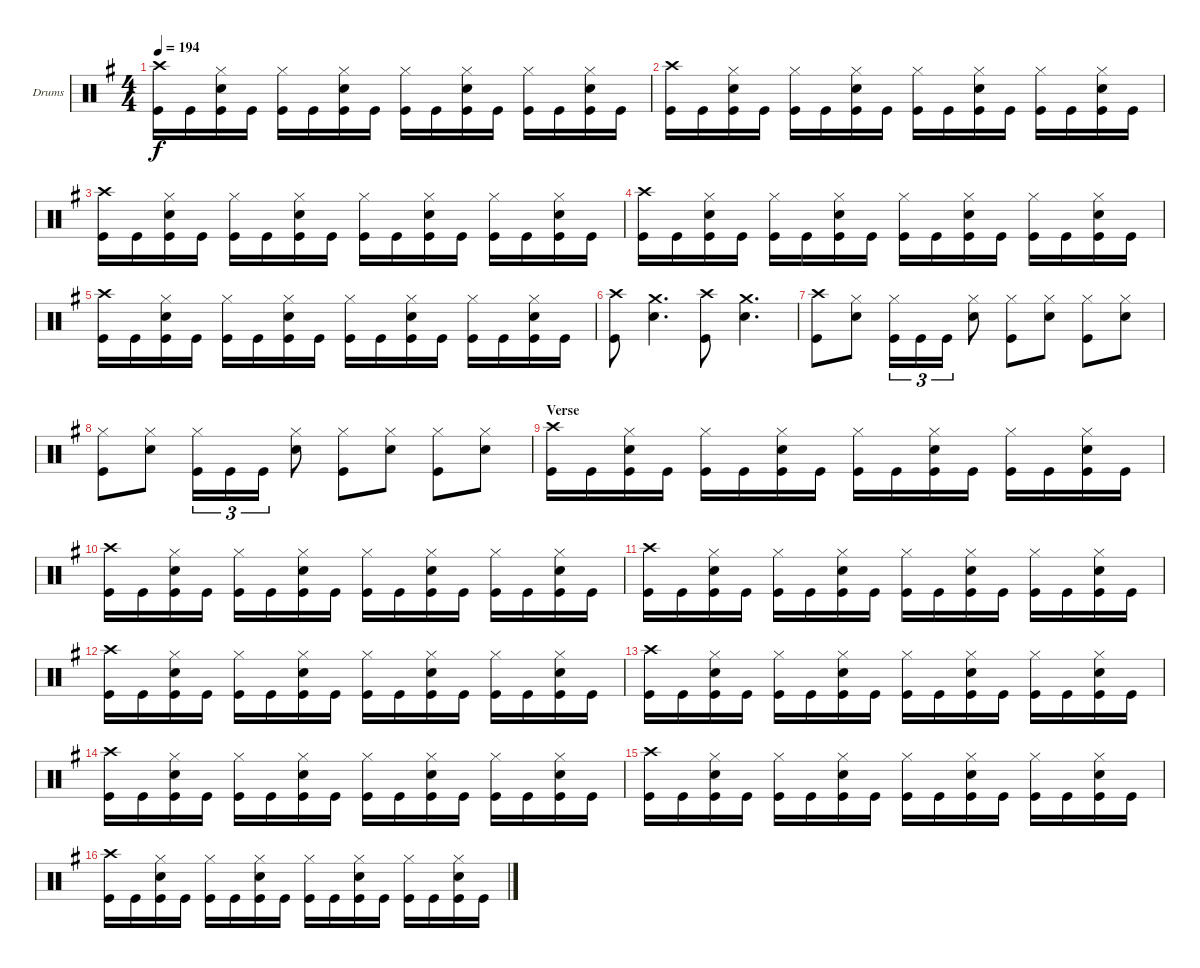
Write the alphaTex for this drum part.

\bracketExtendMode groupsimilarinstruments
\firstSystemTrackNameOrientation horizontal
\otherSystemsTrackNameOrientation horizontal
\track ("Drumkit" "Drums") {instrument percussion}
\staff {score}
\articulation defaults
\ts (4 4)
\tempo 194
\clef neutral
\scale
1.04288
\ks g
("Crash high (hit)" "Kick (hit)").16{dy f} "Kick (hit)".16 ("Hi-Hat (closed)" "Snare (hit) 2" "Kick (hit)").16 "Kick (hit)".16 ("Hi-Hat (closed)" "Kick (hit)").16 "Kick (hit)".16 ("Hi-Hat (closed)" "Snare (hit) 2" "Kick (hit)").16 "Kick (hit)".16 ("Hi-Hat (closed)" "Kick (hit)").16 "Kick (hit)".16 ("Hi-Hat (closed)" "Snare (hit) 2" "Kick (hit)").16 "Kick (hit)".16 ("Hi-Hat (closed)" "Kick (hit)").16 "Kick (hit)".16 ("Hi-Hat (closed)" "Snare (hit) 2" "Kick (hit)").16 "Kick (hit)".16 |
\scale
0.957125 ("Crash high (hit)" "Kick (hit)").16 "Kick (hit)".16 ("Hi-Hat (closed)" "Snare (hit) 2" "Kick (hit)").16 "Kick (hit)".16 ("Hi-Hat (closed)" "Kick (hit)").16 "Kick (hit)".16 ("Hi-Hat (closed)" "Snare (hit) 2" "Kick (hit)").16 "Kick (hit)".16 ("Hi-Hat (closed)" "Kick (hit)").16 "Kick (hit)".16 ("Hi-Hat (closed)" "Snare (hit) 2" "Kick (hit)").16 "Kick (hit)".16 ("Hi-Hat (closed)" "Kick (hit)").16 "Kick (hit)".16 ("Hi-Hat (closed)" "Snare (hit) 2" "Kick (hit)").16 "Kick (hit)".16 |
\scale
1.04288 ("Crash high (hit)" "Kick (hit)").16 "Kick (hit)".16 ("Hi-Hat (closed)" "Snare (hit) 2" "Kick (hit)").16 "Kick (hit)".16 ("Hi-Hat (closed)" "Kick (hit)").16 "Kick (hit)".16 ("Hi-Hat (closed)" "Snare (hit) 2" "Kick (hit)").16 "Kick (hit)".16 ("Hi-Hat (closed)" "Kick (hit)").16 "Kick (hit)".16 ("Hi-Hat (closed)" "Snare (hit) 2" "Kick (hit)").16 "Kick (hit)".16 ("Hi-Hat (closed)" "Kick (hit)").16 "Kick (hit)".16 ("Hi-Hat (closed)" "Snare (hit) 2" "Kick (hit)").16 "Kick (hit)".16 |
\scale
0.957125 ("Crash high (hit)" "Kick (hit)").16 "Kick (hit)".16 ("Hi-Hat (closed)" "Snare (hit) 2" "Kick (hit)").16 "Kick (hit)".16 ("Hi-Hat (closed)" "Kick (hit)").16 "Kick (hit)".16 ("Hi-Hat (closed)" "Snare (hit) 2" "Kick (hit)").16 "Kick (hit)".16 ("Hi-Hat (closed)" "Kick (hit)").16 "Kick (hit)".16 ("Hi-Hat (closed)" "Snare (hit) 2" "Kick (hit)").16 "Kick (hit)".16 ("Hi-Hat (closed)" "Kick (hit)").16 "Kick (hit)".16 ("Hi-Hat (closed)" "Snare (hit) 2" "Kick (hit)").16 "Kick (hit)".16 |
\scale
1.04288 ("Crash high (hit)" "Kick (hit)").16 "Kick (hit)".16 ("Hi-Hat (closed)" "Snare (hit) 2" "Kick (hit)").16 "Kick (hit)".16 ("Hi-Hat (closed)" "Kick (hit)").16 "Kick (hit)".16 ("Hi-Hat (closed)" "Snare (hit) 2" "Kick (hit)").16 "Kick (hit)".16 ("Hi-Hat (closed)" "Kick (hit)").16 "Kick (hit)".16 ("Hi-Hat (closed)" "Snare (hit) 2" "Kick (hit)").16 "Kick (hit)".16 ("Hi-Hat (closed)" "Kick (hit)").16 "Kick (hit)".16 ("Hi-Hat (closed)" "Snare (hit) 2" "Kick (hit)").16 "Kick (hit)".16 |
\scale
0.957125 ("Crash high (hit)" "Kick (hit)").8 ("Crash medium (hit)" "Snare (hit) 2").4{d} ("Crash high (hit)" "Kick (hit)").8 ("Crash medium (hit)" "Snare (hit) 2").4{d} |
\scale
1.04288 ("Crash high (hit)" "Kick (hit)").8 ("Hi-Hat (closed)" "Snare (hit) 2").8 ("Hi-Hat (closed)" "Kick (hit)").16{tu (3 2)} "Kick (hit)".16{tu (3 2)} "Kick (hit)".16{tu (3 2)} ("Hi-Hat (closed)" "Snare (hit) 2").8 ("Hi-Hat (closed)" "Kick (hit)").8 ("Hi-Hat (closed)" "Snare (hit) 2").8 ("Hi-Hat (closed)" "Kick (hit)").8 ("Hi-Hat (closed)" "Snare (hit) 2").8 |
\scale
0.957125 ("Hi-Hat (closed)" "Kick (hit)").8 ("Hi-Hat (closed)" "Snare (hit) 2").8 ("Hi-Hat (closed)" "Kick (hit)").16{tu (3 2)} "Kick (hit)".16{tu (3 2)} "Kick (hit)".16{tu (3 2)} ("Hi-Hat (closed)" "Snare (hit) 2").8 ("Hi-Hat (closed)" "Kick (hit)").8 ("Hi-Hat (closed)" "Snare (hit) 2").8 ("Hi-Hat (closed)" "Kick (hit)").8 ("Hi-Hat (closed)" "Snare (hit) 2").8 |
\section ("" "Verse")
\scale
1.04288 ("Crash high (hit)" "Kick (hit)").16 "Kick (hit)".16 ("Hi-Hat (closed)" "Snare (hit) 2" "Kick (hit)").16 "Kick (hit)".16 ("Hi-Hat (closed)" "Kick (hit)").16 "Kick (hit)".16 ("Hi-Hat (closed)" "Snare (hit) 2" "Kick (hit)").16 "Kick (hit)".16 ("Hi-Hat (closed)" "Kick (hit)").16 "Kick (hit)".16 ("Hi-Hat (closed)" "Snare (hit) 2" "Kick (hit)").16 "Kick (hit)".16 ("Hi-Hat (closed)" "Kick (hit)").16 "Kick (hit)".16 ("Hi-Hat (closed)" "Snare (hit) 2" "Kick (hit)").16 "Kick (hit)".16 |
\scale
0.957125 ("Crash high (hit)" "Kick (hit)").16 "Kick (hit)".16 ("Hi-Hat (closed)" "Snare (hit) 2" "Kick (hit)").16 "Kick (hit)".16 ("Hi-Hat (closed)" "Kick (hit)").16 "Kick (hit)".16 ("Hi-Hat (closed)" "Snare (hit) 2" "Kick (hit)").16 "Kick (hit)".16 ("Hi-Hat (closed)" "Kick (hit)").16 "Kick (hit)".16 ("Hi-Hat (closed)" "Snare (hit) 2" "Kick (hit)").16 "Kick (hit)".16 ("Hi-Hat (closed)" "Kick (hit)").16 "Kick (hit)".16 ("Hi-Hat (closed)" "Snare (hit) 2" "Kick (hit)").16 "Kick (hit)".16 |
\scale
1.04288 ("Crash high (hit)" "Kick (hit)").16 "Kick (hit)".16 ("Hi-Hat (closed)" "Snare (hit) 2" "Kick (hit)").16 "Kick (hit)".16 ("Hi-Hat (closed)" "Kick (hit)").16 "Kick (hit)".16 ("Hi-Hat (closed)" "Snare (hit) 2" "Kick (hit)").16 "Kick (hit)".16 ("Hi-Hat (closed)" "Kick (hit)").16 "Kick (hit)".16 ("Hi-Hat (closed)" "Snare (hit) 2" "Kick (hit)").16 "Kick (hit)".16 ("Hi-Hat (closed)" "Kick (hit)").16 "Kick (hit)".16 ("Hi-Hat (closed)" "Snare (hit) 2" "Kick (hit)").16 "Kick (hit)".16 |
\scale
0.957125 ("Crash high (hit)" "Kick (hit)").16 "Kick (hit)".16 ("Hi-Hat (closed)" "Snare (hit) 2" "Kick (hit)").16 "Kick (hit)".16 ("Hi-Hat (closed)" "Kick (hit)").16 "Kick (hit)".16 ("Hi-Hat (closed)" "Snare (hit) 2" "Kick (hit)").16 "Kick (hit)".16 ("Hi-Hat (closed)" "Kick (hit)").16 "Kick (hit)".16 ("Hi-Hat (closed)" "Snare (hit) 2" "Kick (hit)").16 "Kick (hit)".16 ("Hi-Hat (closed)" "Kick (hit)").16 "Kick (hit)".16 ("Hi-Hat (closed)" "Snare (hit) 2" "Kick (hit)").16 "Kick (hit)".16 |
\scale
1.04288 ("Crash high (hit)" "Kick (hit)").16 "Kick (hit)".16 ("Hi-Hat (closed)" "Snare (hit) 2" "Kick (hit)").16 "Kick (hit)".16 ("Hi-Hat (closed)" "Kick (hit)").16 "Kick (hit)".16 ("Hi-Hat (closed)" "Snare (hit) 2" "Kick (hit)").16 "Kick (hit)".16 ("Hi-Hat (closed)" "Kick (hit)").16 "Kick (hit)".16 ("Hi-Hat (closed)" "Snare (hit) 2" "Kick (hit)").16 "Kick (hit)".16 ("Hi-Hat (closed)" "Kick (hit)").16 "Kick (hit)".16 ("Hi-Hat (closed)" "Snare (hit) 2" "Kick (hit)").16 "Kick (hit)".16 |
\scale
0.957125 ("Crash high (hit)" "Kick (hit)").16 "Kick (hit)".16 ("Hi-Hat (closed)" "Snare (hit) 2" "Kick (hit)").16 "Kick (hit)".16 ("Hi-Hat (closed)" "Kick (hit)").16 "Kick (hit)".16 ("Hi-Hat (closed)" "Snare (hit) 2" "Kick (hit)").16 "Kick (hit)".16 ("Hi-Hat (closed)" "Kick (hit)").16 "Kick (hit)".16 ("Hi-Hat (closed)" "Snare (hit) 2" "Kick (hit)").16 "Kick (hit)".16 ("Hi-Hat (closed)" "Kick (hit)").16 "Kick (hit)".16 ("Hi-Hat (closed)" "Snare (hit) 2" "Kick (hit)").16 "Kick (hit)".16 |
\scale
1.04288 ("Crash high (hit)" "Kick (hit)").16 "Kick (hit)".16 ("Hi-Hat (closed)" "Snare (hit) 2" "Kick (hit)").16 "Kick (hit)".16 ("Hi-Hat (closed)" "Kick (hit)").16 "Kick (hit)".16 ("Hi-Hat (closed)" "Snare (hit) 2" "Kick (hit)").16 "Kick (hit)".16 ("Hi-Hat (closed)" "Kick (hit)").16 "Kick (hit)".16 ("Hi-Hat (closed)" "Snare (hit) 2" "Kick (hit)").16 "Kick (hit)".16 ("Hi-Hat (closed)" "Kick (hit)").16 "Kick (hit)".16 ("Hi-Hat (closed)" "Snare (hit) 2" "Kick (hit)").16 "Kick (hit)".16 |
\scale
0.957125 ("Crash high (hit)" "Kick (hit)").16 "Kick (hit)".16 ("Hi-Hat (closed)" "Snare (hit) 2" "Kick (hit)").16 "Kick (hit)".16 ("Hi-Hat (closed)" "Kick (hit)").16 "Kick (hit)".16 ("Hi-Hat (closed)" "Snare (hit) 2" "Kick (hit)").16 "Kick (hit)".16 ("Hi-Hat (closed)" "Kick (hit)").16 "Kick (hit)".16 ("Hi-Hat (closed)" "Snare (hit) 2" "Kick (hit)").16 "Kick (hit)".16 ("Hi-Hat (closed)" "Kick (hit)").16 "Kick (hit)".16 ("Hi-Hat (closed)" "Snare (hit) 2" "Kick (hit)").16 "Kick (hit)".16
